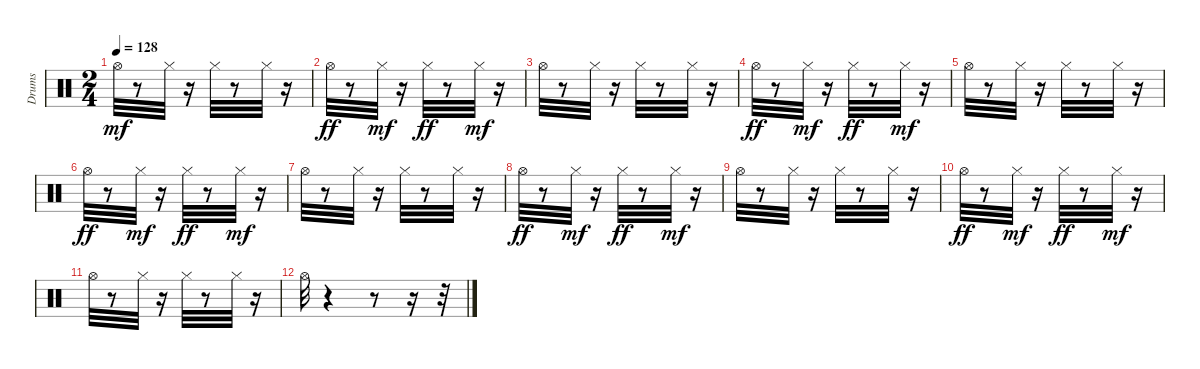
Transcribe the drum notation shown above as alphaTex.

\track ("Drums" "Drums") {instrument percussion}
\staff {score}
\articulation defaults
\ts (2 4)
\tempo 128
\clef neutral
\ks c "Hi-Hat (open)".32{dy mf}
r.8 "Hi-Hat (closed)".32 r.16 "Hi-Hat (closed)".32 r.8 "Hi-Hat (closed)".32 r.16 |
"Hi-Hat (open)".32{dy ff} r.8 "Hi-Hat (closed)".32{dy mf} r.16 "Hi-Hat (closed)".32{dy ff} r.8 "Hi-Hat (closed)".32{dy mf} r.16 |
"Hi-Hat (open)".32 r.8 "Hi-Hat (closed)".32 r.16 "Hi-Hat (closed)".32 r.8 "Hi-Hat (closed)".32 r.16 |
"Hi-Hat (open)".32{dy ff} r.8 "Hi-Hat (closed)".32{dy mf} r.16 "Hi-Hat (closed)".32{dy ff} r.8 "Hi-Hat (closed)".32{dy mf} r.16 |
"Hi-Hat (open)".32 r.8 "Hi-Hat (closed)".32 r.16 "Hi-Hat (closed)".32 r.8 "Hi-Hat (closed)".32 r.16 |
"Hi-Hat (open)".32{dy ff} r.8 "Hi-Hat (closed)".32{dy mf} r.16 "Hi-Hat (closed)".32{dy ff} r.8 "Hi-Hat (closed)".32{dy mf} r.16 |
"Hi-Hat (open)".32 r.8 "Hi-Hat (closed)".32 r.16 "Hi-Hat (closed)".32 r.8 "Hi-Hat (closed)".32 r.16 |
"Hi-Hat (open)".32{dy ff} r.8 "Hi-Hat (closed)".32{dy mf} r.16 "Hi-Hat (closed)".32{dy ff} r.8 "Hi-Hat (closed)".32{dy mf} r.16 |
"Hi-Hat (open)".32 r.8 "Hi-Hat (closed)".32 r.16 "Hi-Hat (closed)".32 r.8 "Hi-Hat (closed)".32 r.16 |
"Hi-Hat (open)".32{dy ff} r.8 "Hi-Hat (closed)".32{dy mf} r.16 "Hi-Hat (closed)".32{dy ff} r.8 "Hi-Hat (closed)".32{dy mf} r.16 |
"Hi-Hat (open)".32 r.8 "Hi-Hat (closed)".32 r.16 "Hi-Hat (closed)".32 r.8 "Hi-Hat (closed)".32 r.16 |
"Hi-Hat (open)".32 r.4 r.8 r.16 r.32
